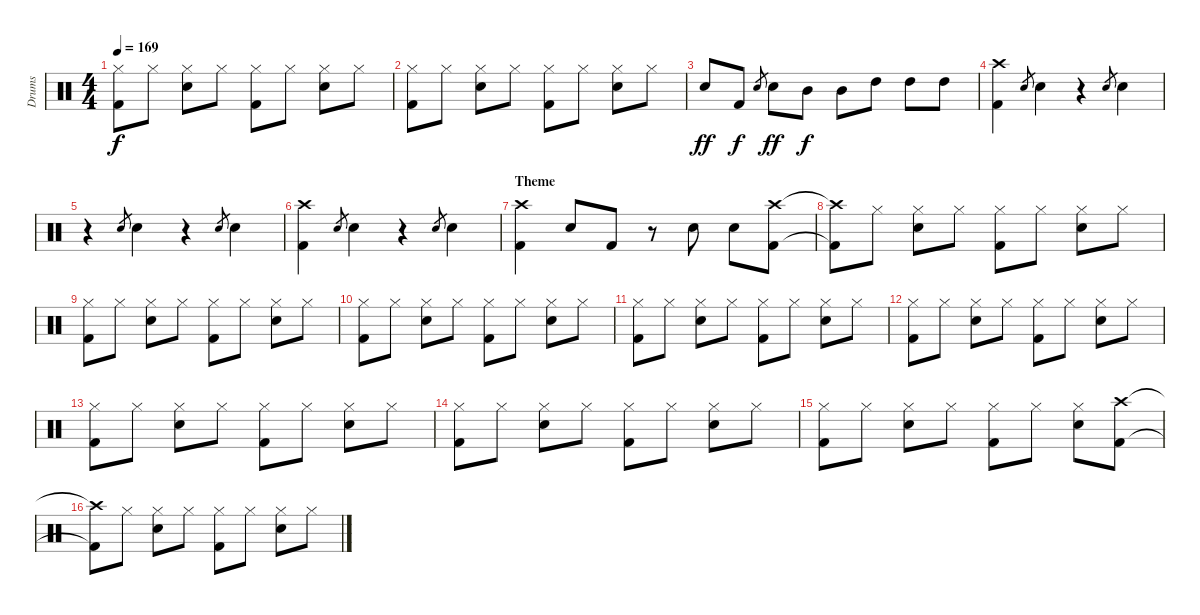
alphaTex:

\track ("Drums" "Drums") {instrument percussion}
\staff {score}
\articulation defaults
\ts (4 4)
\tempo 169
\clef neutral
\ks c
("Hi-Hat (closed)" "Kick (hit) 2").8{dy f} "Hi-Hat (closed)".8 ("Hi-Hat (closed)" "Snare (hit) 2").8 "Hi-Hat (closed)".8 ("Hi-Hat (closed)" "Kick (hit) 2").8 "Hi-Hat (closed)".8 ("Hi-Hat (closed)" "Snare (hit) 2").8 "Hi-Hat (closed)".8 |
("Hi-Hat (closed)" "Kick (hit) 2").8 "Hi-Hat (closed)".8 ("Hi-Hat (closed)" "Snare (hit) 2").8 "Hi-Hat (closed)".8 ("Hi-Hat (closed)" "Kick (hit) 2").8 "Hi-Hat (closed)".8 ("Hi-Hat (closed)" "Snare (hit) 2").8 "Hi-Hat (closed)".8 |
"Snare (hit) 2".8{dy ff} "Kick (hit) 2".8{dy f} "Snare (hit) 2".8{gr} "Snare (hit) 2".8{dy ff} "Mid Tom (hit)".8{dy f} "Mid Tom (hit)".8 "High Tom (hit)".8 "High Tom (hit)".8 "High Tom (hit)".8 |
("Crash high (hit)" "Kick (hit) 2").4 "Snare (hit) 2".8{gr} "Snare (hit) 2".4 r.4 "Snare (hit) 2".8{gr} "Snare (hit) 2".4 |
r.4 "Snare (hit) 2".8{gr} "Snare (hit) 2".4 r.4 "Snare (hit) 2".8{gr} "Snare (hit) 2".4 |
("Crash high (hit)" "Kick (hit) 2").4 "Snare (hit) 2".8{gr} "Snare (hit) 2".4 r.4 "Snare (hit) 2".8{gr} "Snare (hit) 2".4 |
\section ("" "Theme")
("Crash high (hit)" "Kick (hit) 2").4 "Snare (hit) 2".8 "Kick (hit) 2".8 r.8 "Snare (hit) 2".8 "Snare (hit) 2".8 ("Crash high (hit)" "Kick (hit) 2").8 |
("Crash high (hit)"{t} "Kick (hit) 2"{t}).8 "Hi-Hat (closed)".8 ("Hi-Hat (closed)" "Snare (hit) 2").8 "Hi-Hat (closed)".8 ("Hi-Hat (closed)" "Kick (hit) 2").8 "Hi-Hat (closed)".8 ("Hi-Hat (closed)" "Snare (hit) 2").8 "Hi-Hat (closed)".8 |
("Hi-Hat (closed)" "Kick (hit) 2").8 "Hi-Hat (closed)".8 ("Hi-Hat (closed)" "Snare (hit) 2").8 "Hi-Hat (closed)".8 ("Hi-Hat (closed)" "Kick (hit) 2").8 "Hi-Hat (closed)".8 ("Hi-Hat (closed)" "Snare (hit) 2").8 "Hi-Hat (closed)".8 |
("Hi-Hat (closed)" "Kick (hit) 2").8 "Hi-Hat (closed)".8 ("Hi-Hat (closed)" "Snare (hit) 2").8 "Hi-Hat (closed)".8 ("Hi-Hat (closed)" "Kick (hit) 2").8 "Hi-Hat (closed)".8 ("Hi-Hat (closed)" "Snare (hit) 2").8 "Hi-Hat (closed)".8 |
("Hi-Hat (closed)" "Kick (hit) 2").8 "Hi-Hat (closed)".8 ("Hi-Hat (closed)" "Snare (hit) 2").8 "Hi-Hat (closed)".8 ("Hi-Hat (closed)" "Kick (hit) 2").8 "Hi-Hat (closed)".8 ("Hi-Hat (closed)" "Snare (hit) 2").8 "Hi-Hat (closed)".8 |
("Hi-Hat (closed)" "Kick (hit) 2").8 "Hi-Hat (closed)".8 ("Hi-Hat (closed)" "Snare (hit) 2").8 "Hi-Hat (closed)".8 ("Hi-Hat (closed)" "Kick (hit) 2").8 "Hi-Hat (closed)".8 ("Hi-Hat (closed)" "Snare (hit) 2").8 "Hi-Hat (closed)".8 |
("Hi-Hat (closed)" "Kick (hit) 2").8 "Hi-Hat (closed)".8 ("Hi-Hat (closed)" "Snare (hit) 2").8 "Hi-Hat (closed)".8 ("Hi-Hat (closed)" "Kick (hit) 2").8 "Hi-Hat (closed)".8 ("Hi-Hat (closed)" "Snare (hit) 2").8 "Hi-Hat (closed)".8 |
("Hi-Hat (closed)" "Kick (hit) 2").8 "Hi-Hat (closed)".8 ("Hi-Hat (closed)" "Snare (hit) 2").8 "Hi-Hat (closed)".8 ("Hi-Hat (closed)" "Kick (hit) 2").8 "Hi-Hat (closed)".8 ("Hi-Hat (closed)" "Snare (hit) 2").8 "Hi-Hat (closed)".8 |
("Hi-Hat (closed)" "Kick (hit) 2").8 "Hi-Hat (closed)".8 ("Hi-Hat (closed)" "Snare (hit) 2").8 "Hi-Hat (closed)".8 ("Hi-Hat (closed)" "Kick (hit) 2").8 "Hi-Hat (closed)".8 ("Hi-Hat (closed)" "Snare (hit) 2").8 ("Crash high (hit)" "Kick (hit) 2").8 |
("Crash high (hit)"{t} "Kick (hit) 2"{t}).8 "Hi-Hat (closed)".8 ("Hi-Hat (closed)" "Snare (hit) 2").8 "Hi-Hat (closed)".8 ("Hi-Hat (closed)" "Kick (hit) 2").8 "Hi-Hat (closed)".8 ("Hi-Hat (closed)" "Snare (hit) 2").8 "Hi-Hat (closed)".8
